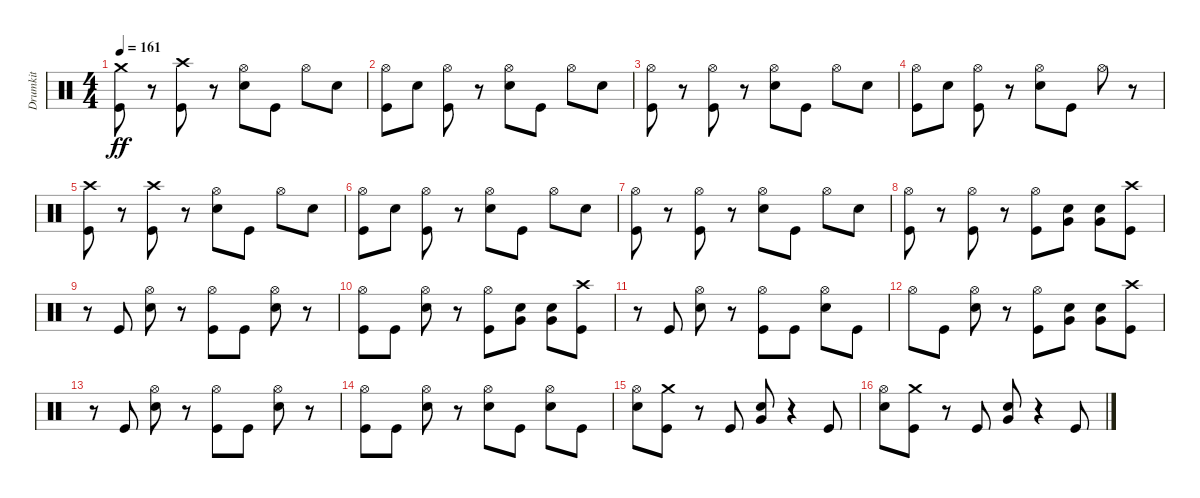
\track ("Drumkit" "Drumkit") {instrument percussion}
\staff {score}
\articulation defaults
\ts (4 4)
\tempo 161
\clef neutral
\ks c
("Crash medium (hit)" "Kick (hit)").8{dy ff} r.8 ("Kick (hit)" "Crash high (hit)").8 r.8 ("Hi-Hat (open)" "Snare (hit) 2").8 "Kick (hit)".8 "Hi-Hat (open)".8 "Snare (hit) 2".8 |
("Hi-Hat (open)" "Kick (hit)").8 "Snare (hit) 2".8 ("Hi-Hat (open)" "Kick (hit)").8 r.8 ("Hi-Hat (open)" "Snare (hit) 2").8 "Kick (hit)".8 "Hi-Hat (open)".8 "Snare (hit) 2".8 |
("Hi-Hat (open)" "Kick (hit)").8 r.8 ("Hi-Hat (open)" "Kick (hit)").8 r.8 ("Hi-Hat (open)" "Snare (hit) 2").8 "Kick (hit)".8 "Hi-Hat (open)".8 "Snare (hit) 2".8 |
("Hi-Hat (open)" "Kick (hit)").8 "Snare (hit) 2".8 ("Hi-Hat (open)" "Kick (hit)").8 r.8 ("Hi-Hat (open)" "Snare (hit) 2").8 "Kick (hit)".8 "Hi-Hat (open)".8 r.8 |
("Kick (hit)" "Crash high (hit)").8 r.8 ("Kick (hit)" "Crash high (hit)").8 r.8 ("Hi-Hat (open)" "Snare (hit) 2").8 "Kick (hit)".8 "Hi-Hat (open)".8 "Snare (hit) 2".8 |
("Hi-Hat (open)" "Kick (hit)").8 "Snare (hit) 2".8 ("Hi-Hat (open)" "Kick (hit)").8 r.8 ("Hi-Hat (open)" "Snare (hit) 2").8 "Kick (hit)".8 "Hi-Hat (open)".8 "Snare (hit) 2".8 |
("Hi-Hat (open)" "Kick (hit)").8 r.8 ("Hi-Hat (open)" "Kick (hit)").8 r.8 ("Hi-Hat (open)" "Snare (hit) 2").8 "Kick (hit)".8 "Hi-Hat (open)".8 "Snare (hit) 2".8 |
("Hi-Hat (open)" "Kick (hit)").8 r.8 ("Kick (hit)" "Hi-Hat (open)").8 r.8 ("Hi-Hat (open)" "Kick (hit)").8 ("Very Low Tom (hit)" "Snare (hit) 2").8 ("Snare (hit) 2" "Very Low Tom (hit)").8 ("Crash high (hit)" "Kick (hit)").8 |
r.8 "Kick (hit)".8 ("Snare (hit) 2" "Hi-Hat (open)").8 r.8 ("Hi-Hat (open)" "Kick (hit)").8 "Kick (hit)".8 ("Snare (hit) 2" "Hi-Hat (open)").8 r.8 |
("Hi-Hat (open)" "Kick (hit)").8 "Kick (hit)".8 ("Snare (hit) 2" "Hi-Hat (open)").8 r.8 ("Hi-Hat (open)" "Kick (hit)").8 ("Very Low Tom (hit)" "Snare (hit) 2").8 ("Snare (hit) 2" "Very Low Tom (hit)").8 ("Crash high (hit)" "Kick (hit)").8 |
r.8 "Kick (hit)".8 ("Snare (hit) 2" "Hi-Hat (open)").8 r.8 ("Hi-Hat (open)" "Kick (hit)").8 "Kick (hit)".8 ("Snare (hit) 2" "Hi-Hat (open)").8 "Kick (hit)".8 |
"Hi-Hat (open)".8 "Kick (hit)".8 ("Snare (hit) 2" "Hi-Hat (open)").8 r.8 ("Hi-Hat (open)" "Kick (hit)").8 ("Very Low Tom (hit)" "Snare (hit) 2").8 ("Snare (hit) 2" "Very Low Tom (hit)").8 ("Crash high (hit)" "Kick (hit)").8 |
r.8 "Kick (hit)".8 ("Snare (hit) 2" "Hi-Hat (open)").8 r.8 ("Hi-Hat (open)" "Kick (hit)").8 "Kick (hit)".8 ("Snare (hit) 2" "Hi-Hat (open)").8 r.8 |
("Hi-Hat (open)" "Kick (hit)").8 "Kick (hit)".8 ("Snare (hit) 2" "Hi-Hat (open)").8 r.8 ("Snare (hit) 2" "Hi-Hat (open)").8 "Kick (hit)".8 ("Snare (hit) 2" "Hi-Hat (open)").8 "Kick (hit)".8 |
("Snare (hit) 2" "Hi-Hat (open)").8 ("Crash medium (hit)" "Kick (hit)").8 r.8 "Kick (hit)".8 ("Snare (hit) 2" "Very Low Tom (hit)").8 r.4 "Kick (hit)".8 |
("Snare (hit) 2" "Hi-Hat (open)").8 ("Crash medium (hit)" "Kick (hit)").8 r.8 "Kick (hit)".8 ("Snare (hit) 2" "Very Low Tom (hit)").8 r.4 "Kick (hit)".8
